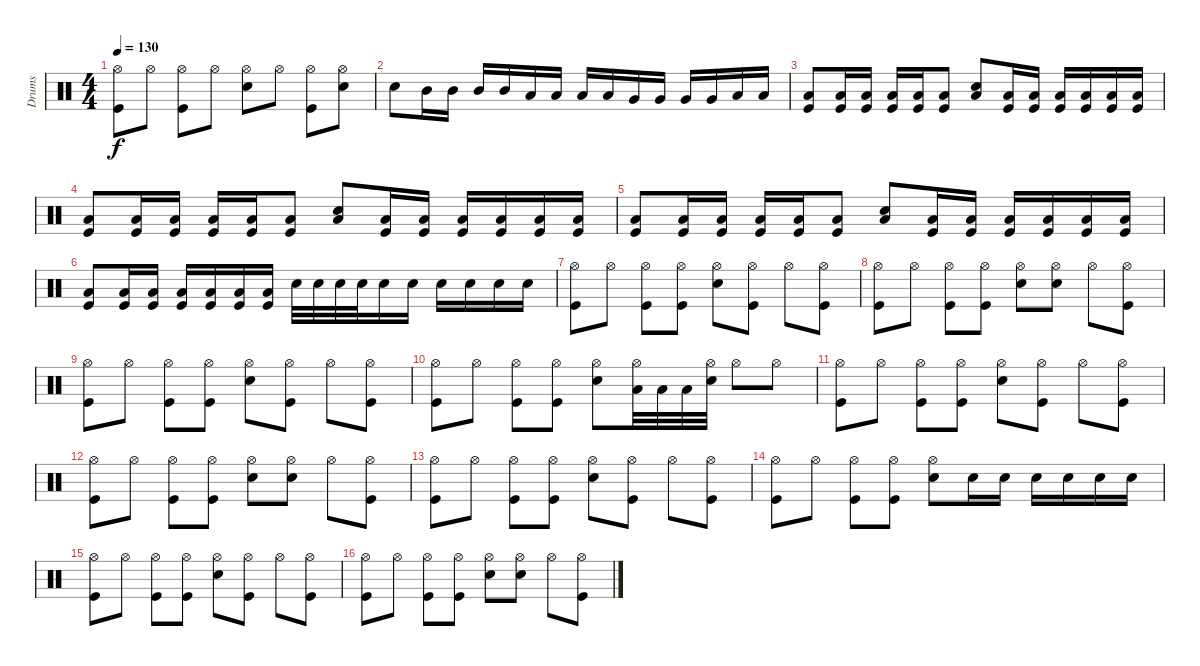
\track ("Drums" "Drums") {instrument percussion}
\staff {score}
\articulation defaults
\ts (4 4)
\tempo 130
\clef neutral
\ks c
("Hi-Hat (open)" "Kick (hit)").8{dy f} "Hi-Hat (open)".8 ("Hi-Hat (open)" "Kick (hit)").8 "Hi-Hat (open)".8 ("Hi-Hat (open)" "Snare (hit) 2").8 "Hi-Hat (open)".8 ("Hi-Hat (open)" "Kick (hit)").8 ("Hi-Hat (open)" "Snare (hit) 2").8 |
"Snare (hit) 2".8 "Mid Tom (hit)".16 "Mid Tom (hit)".16 "Mid Tom (hit)".16 "Mid Tom (hit)".16 "Low Tom (hit)".16 "Low Tom (hit)".16 "Low Tom (hit)".16 "Low Tom (hit)".16 "Very Low Tom (hit)".16 "Very Low Tom (hit)".16 "Very Low Tom (hit)".16 "Very Low Tom (hit)".16 "Low Floor Tom (hit)".16 "Low Floor Tom (hit)".16 |
("Low Floor Tom (hit)" "Kick (hit)").8 ("Low Floor Tom (hit)" "Kick (hit)").16 ("Low Floor Tom (hit)" "Kick (hit)").16 ("Low Floor Tom (hit)" "Kick (hit)").16 ("Low Floor Tom (hit)" "Kick (hit)").16 ("Low Floor Tom (hit)" "Kick (hit)").8 ("Low Floor Tom (hit)" "Snare (hit) 2").8 ("Low Floor Tom (hit)" "Kick (hit)").16 ("Low Floor Tom (hit)" "Kick (hit)").16 ("Low Floor Tom (hit)" "Kick (hit)").16 ("Low Floor Tom (hit)" "Kick (hit)").16 ("Low Floor Tom (hit)" "Kick (hit)").16 ("Low Floor Tom (hit)" "Kick (hit)").16 |
("Low Floor Tom (hit)" "Kick (hit)").8 ("Low Floor Tom (hit)" "Kick (hit)").16 ("Low Floor Tom (hit)" "Kick (hit)").16 ("Low Floor Tom (hit)" "Kick (hit)").16 ("Low Floor Tom (hit)" "Kick (hit)").16 ("Low Floor Tom (hit)" "Kick (hit)").8 ("Low Floor Tom (hit)" "Snare (hit) 2").8 ("Low Floor Tom (hit)" "Kick (hit)").16 ("Low Floor Tom (hit)" "Kick (hit)").16 ("Low Floor Tom (hit)" "Kick (hit)").16 ("Low Floor Tom (hit)" "Kick (hit)").16 ("Low Floor Tom (hit)" "Kick (hit)").16 ("Low Floor Tom (hit)" "Kick (hit)").16 |
("Low Floor Tom (hit)" "Kick (hit)").8 ("Low Floor Tom (hit)" "Kick (hit)").16 ("Low Floor Tom (hit)" "Kick (hit)").16 ("Low Floor Tom (hit)" "Kick (hit)").16 ("Low Floor Tom (hit)" "Kick (hit)").16 ("Low Floor Tom (hit)" "Kick (hit)").8 ("Low Floor Tom (hit)" "Snare (hit) 2").8 ("Low Floor Tom (hit)" "Kick (hit)").16 ("Low Floor Tom (hit)" "Kick (hit)").16 ("Low Floor Tom (hit)" "Kick (hit)").16 ("Low Floor Tom (hit)" "Kick (hit)").16 ("Low Floor Tom (hit)" "Kick (hit)").16 ("Low Floor Tom (hit)" "Kick (hit)").16 |
("Low Floor Tom (hit)" "Kick (hit)").8 ("Low Floor Tom (hit)" "Kick (hit)").16 ("Low Floor Tom (hit)" "Kick (hit)").16 ("Low Floor Tom (hit)" "Kick (hit)").16 ("Low Floor Tom (hit)" "Kick (hit)").16 ("Low Floor Tom (hit)" "Kick (hit)").16 ("Low Floor Tom (hit)" "Kick (hit)").16 "Snare (hit) 2".32 "Snare (hit) 2".32 "Snare (hit) 2".32 "Snare (hit) 2".32 "Snare (hit) 2".16 "Snare (hit) 2".16 "Snare (hit) 2".16 "Snare (hit) 2".16 "Snare (hit) 2".16 "Snare (hit) 2".16 |
("Hi-Hat (open)" "Kick (hit)").8 "Hi-Hat (open)".8 ("Hi-Hat (open)" "Kick (hit)").8 ("Hi-Hat (open)" "Kick (hit)").8 ("Hi-Hat (open)" "Snare (hit) 2").8 ("Hi-Hat (open)" "Kick (hit)").8 "Hi-Hat (open)".8 ("Hi-Hat (open)" "Kick (hit)").8 |
("Hi-Hat (open)" "Kick (hit)").8 "Hi-Hat (open)".8 ("Hi-Hat (open)" "Kick (hit)").8 ("Hi-Hat (open)" "Kick (hit)").8 ("Hi-Hat (open)" "Snare (hit) 2").8 ("Hi-Hat (open)" "Snare (hit) 2").8 "Hi-Hat (open)".8 ("Hi-Hat (open)" "Kick (hit)").8 |
("Hi-Hat (open)" "Kick (hit)").8 "Hi-Hat (open)".8 ("Hi-Hat (open)" "Kick (hit)").8 ("Hi-Hat (open)" "Kick (hit)").8 ("Hi-Hat (open)" "Snare (hit) 2").8 ("Hi-Hat (open)" "Kick (hit)").8 "Hi-Hat (open)".8 ("Hi-Hat (open)" "Kick (hit)").8 |
("Hi-Hat (open)" "Kick (hit)").8 "Hi-Hat (open)".8 ("Hi-Hat (open)" "Kick (hit)").8 ("Hi-Hat (open)" "Kick (hit)").8 ("Hi-Hat (open)" "Snare (hit) 2").8 ("Hi-Hat (open)" "Low Floor Tom (hit)").32 "Low Floor Tom (hit)".32 "Low Floor Tom (hit)".32 ("Hi-Hat (open)" "Snare (hit) 2").32 "Hi-Hat (open)".8 "Hi-Hat (open)".8 |
("Hi-Hat (open)" "Kick (hit)").8 "Hi-Hat (open)".8 ("Hi-Hat (open)" "Kick (hit)").8 ("Hi-Hat (open)" "Kick (hit)").8 ("Hi-Hat (open)" "Snare (hit) 2").8 ("Hi-Hat (open)" "Kick (hit)").8 "Hi-Hat (open)".8 ("Hi-Hat (open)" "Kick (hit)").8 |
("Hi-Hat (open)" "Kick (hit)").8 "Hi-Hat (open)".8 ("Hi-Hat (open)" "Kick (hit)").8 ("Hi-Hat (open)" "Kick (hit)").8 ("Hi-Hat (open)" "Snare (hit) 2").8 ("Hi-Hat (open)" "Snare (hit) 2").8 "Hi-Hat (open)".8 ("Hi-Hat (open)" "Kick (hit)").8 |
("Hi-Hat (open)" "Kick (hit)").8 "Hi-Hat (open)".8 ("Hi-Hat (open)" "Kick (hit)").8 ("Hi-Hat (open)" "Kick (hit)").8 ("Hi-Hat (open)" "Snare (hit) 2").8 ("Hi-Hat (open)" "Kick (hit)").8 "Hi-Hat (open)".8 ("Hi-Hat (open)" "Kick (hit)").8 |
("Hi-Hat (open)" "Kick (hit)").8 "Hi-Hat (open)".8 ("Hi-Hat (open)" "Kick (hit)").8 ("Hi-Hat (open)" "Kick (hit)").8 ("Hi-Hat (open)" "Snare (hit) 2").8 "Snare (hit) 2".16 "Snare (hit) 2".16 "Snare (hit) 2".16 "Snare (hit) 2".16 "Snare (hit) 2".16 "Snare (hit) 2".16 |
("Hi-Hat (open)" "Kick (hit)").8 "Hi-Hat (open)".8 ("Hi-Hat (open)" "Kick (hit)").8 ("Hi-Hat (open)" "Kick (hit)").8 ("Hi-Hat (open)" "Snare (hit) 2").8 ("Hi-Hat (open)" "Kick (hit)").8 "Hi-Hat (open)".8 ("Hi-Hat (open)" "Kick (hit)").8 |
("Hi-Hat (open)" "Kick (hit)").8 "Hi-Hat (open)".8 ("Hi-Hat (open)" "Kick (hit)").8 ("Hi-Hat (open)" "Kick (hit)").8 ("Hi-Hat (open)" "Snare (hit) 2").8 ("Hi-Hat (open)" "Snare (hit) 2").8 "Hi-Hat (open)".8 ("Hi-Hat (open)" "Kick (hit)").8
